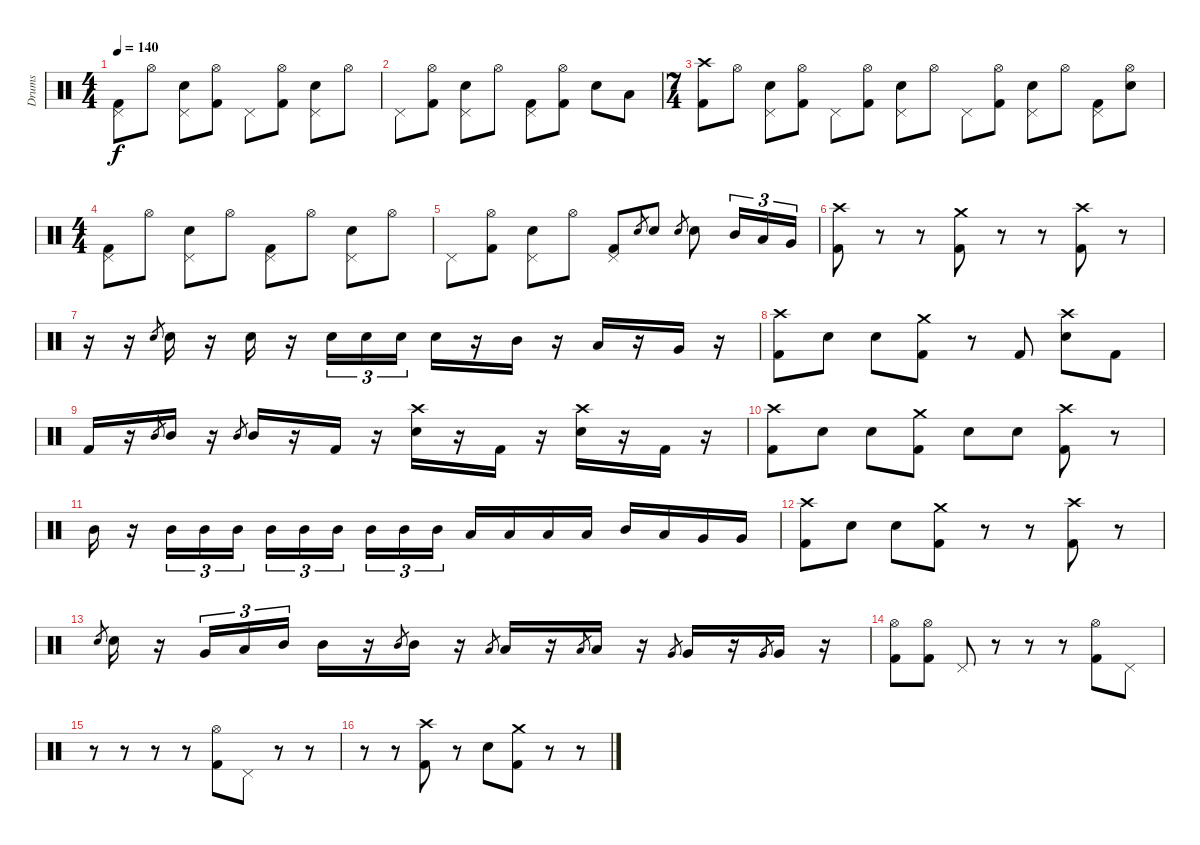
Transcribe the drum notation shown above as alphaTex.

\track ("Drums" "Drums") {instrument percussion}
\staff {score}
\articulation defaults
\ts (4 4)
\tempo 140
\clef neutral
\ks c
("Pedal Hi-Hat (hit)" "Kick (hit) 2").8{dy f} "Hi-Hat (open)".8 ("Pedal Hi-Hat (hit)" "Electric Snare (hit)").8 ("Hi-Hat (open)" "Kick (hit) 2").8 "Pedal Hi-Hat (hit)".8 ("Hi-Hat (open)" "Kick (hit) 2").8 ("Pedal Hi-Hat (hit)" "Electric Snare (hit)").8 "Hi-Hat (open)".8 |
"Pedal Hi-Hat (hit)".8 ("Hi-Hat (open)" "Kick (hit) 2").8 ("Pedal Hi-Hat (hit)" "Electric Snare (hit)").8 "Hi-Hat (open)".8 ("Pedal Hi-Hat (hit)" "Kick (hit) 2").8 ("Hi-Hat (open)" "Kick (hit) 2").8 "Electric Snare (hit)".8 "Low Tom (hit)".8 |
\ts (7 4)
("Crash high (hit)" "Kick (hit) 2").8 "Hi-Hat (open)".8 ("Pedal Hi-Hat (hit)" "Electric Snare (hit)").8 ("Hi-Hat (open)" "Kick (hit) 2").8 "Pedal Hi-Hat (hit)".8 ("Hi-Hat (open)" "Kick (hit) 2").8 ("Pedal Hi-Hat (hit)" "Electric Snare (hit)").8 "Hi-Hat (open)".8 "Pedal Hi-Hat (hit)".8 ("Hi-Hat (open)" "Kick (hit) 2").8 ("Pedal Hi-Hat (hit)" "Electric Snare (hit)").8 "Hi-Hat (open)".8 ("Pedal Hi-Hat (hit)" "Kick (hit) 2").8 ("Hi-Hat (open)" "Electric Snare (hit)").8 |
\ts (4 4)
("Pedal Hi-Hat (hit)" "Kick (hit) 2").8 "Hi-Hat (open)".8 ("Pedal Hi-Hat (hit)" "Electric Snare (hit)").8 "Hi-Hat (open)".8 ("Pedal Hi-Hat (hit)" "Kick (hit) 2").8 "Hi-Hat (open)".8 ("Pedal Hi-Hat (hit)" "Electric Snare (hit)").8 "Hi-Hat (open)".8 |
"Pedal Hi-Hat (hit)".8 ("Hi-Hat (open)" "Kick (hit) 2").8 ("Pedal Hi-Hat (hit)" "Electric Snare (hit)").8 "Hi-Hat (open)".8 ("Pedal Hi-Hat (hit)" "Kick (hit) 2").8 "Electric Snare (hit)".8{gr} "Electric Snare (hit)".8 "Electric Snare (hit)".8{gr} "Electric Snare (hit)".8 "Mid Tom (hit)".16{tu (3 2)} "Low Tom (hit)".16{tu (3 2)} "Very Low Tom (hit)".16{tu (3 2)} |
("Crash high (hit)" "Kick (hit) 2").8 r.8 r.8 ("Crash medium (hit)" "Kick (hit) 2").8 r.8 r.8 ("Crash high (hit)" "Kick (hit) 2").8 r.8 |
r.16 r.16 "Electric Snare (hit)".8{gr} "Electric Snare (hit)".16 r.16 "Electric Snare (hit)".16 r.16 "Electric Snare (hit)".16{tu (3 2)} "Electric Snare (hit)".16{tu (3 2)} "Electric Snare (hit)".16{tu (3 2)} "Electric Snare (hit)".16 r.16 "Mid Tom (hit)".16 r.16 "Low Tom (hit)".16 r.16 "Very Low Tom (hit)".16 r.16 |
("Crash high (hit)" "Kick (hit) 2").8 "Electric Snare (hit)".8 "Electric Snare (hit)".8 ("Crash medium (hit)" "Kick (hit) 2").8 r.8 "Kick (hit) 2".8 ("Crash high (hit)" "Electric Snare (hit)").8 "Kick (hit) 2".8 |
"Kick (hit) 2".16 r.16 "Mid Tom (hit)".8{gr} "Mid Tom (hit)".16 r.16 "Mid Tom (hit)".8{gr} "Mid Tom (hit)".16 r.16 "Kick (hit) 2".16 r.16 ("Crash high (hit)" "Electric Snare (hit)").16 r.16 "Kick (hit) 2".16 r.16 ("Crash high (hit)" "Electric Snare (hit)").16 r.16 "Kick (hit) 2".16 r.16 |
("Crash high (hit)" "Kick (hit) 2").8 "Electric Snare (hit)".8 "Electric Snare (hit)".8 ("Crash medium (hit)" "Kick (hit) 2").8 "Electric Snare (hit)".8 "Electric Snare (hit)".8 ("Crash high (hit)" "Kick (hit) 2").8 r.8 |
"Mid Tom (hit)".16 r.16 "Mid Tom (hit)".16{tu (3 2)} "Mid Tom (hit)".16{tu (3 2)} "Mid Tom (hit)".16{tu (3 2)} "Mid Tom (hit)".16{tu (3 2)} "Mid Tom (hit)".16{tu (3 2)} "Mid Tom (hit)".16{tu (3 2)} "Mid Tom (hit)".16{tu (3 2)} "Mid Tom (hit)".16{tu (3 2)} "Mid Tom (hit)".16{tu (3 2)} "Low Tom (hit)".16 "Low Tom (hit)".16 "Low Tom (hit)".16 "Low Tom (hit)".16 "Mid Tom (hit)".16 "Low Tom (hit)".16 "Very Low Tom (hit)".16 "Very Low Tom (hit)".16 |
("Crash high (hit)" "Kick (hit) 2").8 "Electric Snare (hit)".8 "Electric Snare (hit)".8 ("Crash medium (hit)" "Kick (hit) 2").8 r.8 r.8 ("Crash high (hit)" "Kick (hit) 2").8 r.8 |
"Electric Snare (hit)".8{gr} "Electric Snare (hit)".16 r.16 "Very Low Tom (hit)".16{tu (3 2)} "Low Tom (hit)".16{tu (3 2)} "Mid Tom (hit)".16{tu (3 2)} "Mid Tom (hit)".16 r.16 "Mid Tom (hit)".8{gr} "Mid Tom (hit)".16 r.16 "Low Tom (hit)".8{gr} "Low Tom (hit)".16 r.16 "Low Tom (hit)".8{gr} "Low Tom (hit)".16 r.16 "Very Low Tom (hit)".8{gr} "Very Low Tom (hit)".16 r.16 "Very Low Tom (hit)".8{gr} "Very Low Tom (hit)".16 r.16 |
("Hi-Hat (open)" "Kick (hit) 2").8 ("Hi-Hat (open)" "Kick (hit) 2").8 "Pedal Hi-Hat (hit)".8 r.8 r.8 r.8 ("Hi-Hat (open)" "Kick (hit) 2").8 "Pedal Hi-Hat (hit)".8 |
r.8 r.8 r.8 r.8 ("Hi-Hat (open)" "Kick (hit) 2").8 "Pedal Hi-Hat (hit)".8 r.8 r.8 |
r.8 r.8 ("Crash high (hit)" "Kick (hit) 2").8 r.8 "Electric Snare (hit)".8 ("Crash medium (hit)" "Kick (hit) 2").8 r.8 r.8
